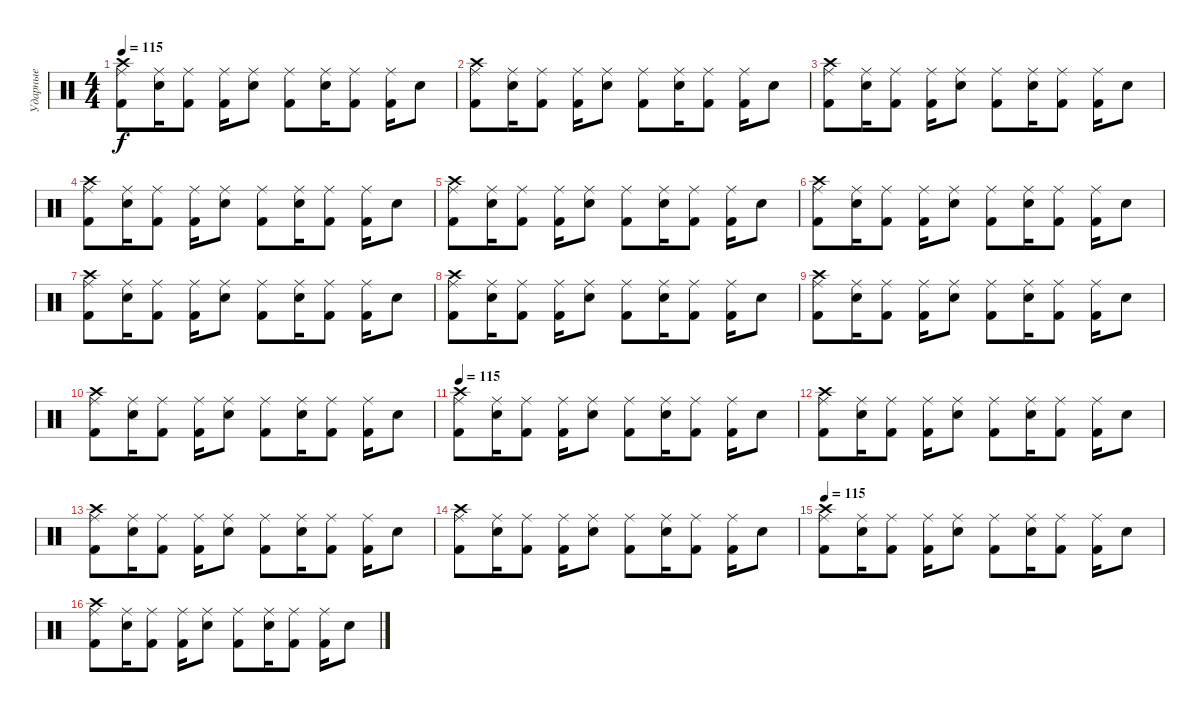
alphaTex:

\track ("Ударные" "Ударные") {instrument percussion}
\staff {score}
\articulation defaults
\ts (4 4)
\tempo 115
\clef neutral
\ks c
("Kick (hit) 2" "Crash high (hit)" "Ride (middle)").8{dy f} ("Electric Snare (hit)" "Ride (middle)").16 ("Kick (hit) 2" "Ride (middle)").8 ("Kick (hit) 2" "Ride (middle)").16 ("Electric Snare (hit)" "Ride (middle)").8 ("Kick (hit) 2" "Ride (middle)").8 ("Electric Snare (hit)" "Ride (middle)").16 ("Kick (hit) 2" "Ride (middle)").8 ("Kick (hit) 2" "Ride (middle)").16 "Electric Snare (hit)".8 |
("Kick (hit) 2" "Crash high (hit)" "Ride (middle)").8 ("Electric Snare (hit)" "Ride (middle)").16 ("Kick (hit) 2" "Ride (middle)").8 ("Kick (hit) 2" "Ride (middle)").16 ("Electric Snare (hit)" "Ride (middle)").8 ("Kick (hit) 2" "Ride (middle)").8 ("Electric Snare (hit)" "Ride (middle)").16 ("Kick (hit) 2" "Ride (middle)").8 ("Kick (hit) 2" "Ride (middle)").16 "Electric Snare (hit)".8 |
("Kick (hit) 2" "Crash high (hit)" "Ride (middle)").8 ("Electric Snare (hit)" "Ride (middle)").16 ("Kick (hit) 2" "Ride (middle)").8 ("Kick (hit) 2" "Ride (middle)").16 ("Electric Snare (hit)" "Ride (middle)").8 ("Kick (hit) 2" "Ride (middle)").8 ("Electric Snare (hit)" "Ride (middle)").16 ("Kick (hit) 2" "Ride (middle)").8 ("Kick (hit) 2" "Ride (middle)").16 "Electric Snare (hit)".8 |
("Kick (hit) 2" "Crash high (hit)" "Ride (middle)").8 ("Electric Snare (hit)" "Ride (middle)").16 ("Kick (hit) 2" "Ride (middle)").8 ("Kick (hit) 2" "Ride (middle)").16 ("Electric Snare (hit)" "Ride (middle)").8 ("Kick (hit) 2" "Ride (middle)").8 ("Electric Snare (hit)" "Ride (middle)").16 ("Kick (hit) 2" "Ride (middle)").8 ("Kick (hit) 2" "Ride (middle)").16 "Electric Snare (hit)".8 |
("Kick (hit) 2" "Crash high (hit)" "Ride (middle)").8 ("Electric Snare (hit)" "Ride (middle)").16 ("Kick (hit) 2" "Ride (middle)").8 ("Kick (hit) 2" "Ride (middle)").16 ("Electric Snare (hit)" "Ride (middle)").8 ("Kick (hit) 2" "Ride (middle)").8 ("Electric Snare (hit)" "Ride (middle)").16 ("Kick (hit) 2" "Ride (middle)").8 ("Kick (hit) 2" "Ride (middle)").16 "Electric Snare (hit)".8 |
("Kick (hit) 2" "Crash high (hit)" "Ride (middle)").8 ("Electric Snare (hit)" "Ride (middle)").16 ("Kick (hit) 2" "Ride (middle)").8 ("Kick (hit) 2" "Ride (middle)").16 ("Electric Snare (hit)" "Ride (middle)").8 ("Kick (hit) 2" "Ride (middle)").8 ("Electric Snare (hit)" "Ride (middle)").16 ("Kick (hit) 2" "Ride (middle)").8 ("Kick (hit) 2" "Ride (middle)").16 "Electric Snare (hit)".8 |
("Kick (hit) 2" "Crash high (hit)" "Ride (middle)").8 ("Electric Snare (hit)" "Ride (middle)").16 ("Kick (hit) 2" "Ride (middle)").8 ("Kick (hit) 2" "Ride (middle)").16 ("Electric Snare (hit)" "Ride (middle)").8 ("Kick (hit) 2" "Ride (middle)").8 ("Electric Snare (hit)" "Ride (middle)").16 ("Kick (hit) 2" "Ride (middle)").8 ("Kick (hit) 2" "Ride (middle)").16 "Electric Snare (hit)".8 |
("Kick (hit) 2" "Crash high (hit)" "Ride (middle)").8 ("Electric Snare (hit)" "Ride (middle)").16 ("Kick (hit) 2" "Ride (middle)").8 ("Kick (hit) 2" "Ride (middle)").16 ("Electric Snare (hit)" "Ride (middle)").8 ("Kick (hit) 2" "Ride (middle)").8 ("Electric Snare (hit)" "Ride (middle)").16 ("Kick (hit) 2" "Ride (middle)").8 ("Kick (hit) 2" "Ride (middle)").16 "Electric Snare (hit)".8 |
("Kick (hit) 2" "Crash high (hit)" "Ride (middle)").8 ("Electric Snare (hit)" "Ride (middle)").16 ("Kick (hit) 2" "Ride (middle)").8 ("Kick (hit) 2" "Ride (middle)").16 ("Electric Snare (hit)" "Ride (middle)").8 ("Kick (hit) 2" "Ride (middle)").8 ("Electric Snare (hit)" "Ride (middle)").16 ("Kick (hit) 2" "Ride (middle)").8 ("Kick (hit) 2" "Ride (middle)").16 "Electric Snare (hit)".8 |
("Kick (hit) 2" "Crash high (hit)" "Ride (middle)").8 ("Electric Snare (hit)" "Ride (middle)").16 ("Kick (hit) 2" "Ride (middle)").8 ("Kick (hit) 2" "Ride (middle)").16 ("Electric Snare (hit)" "Ride (middle)").8 ("Kick (hit) 2" "Ride (middle)").8 ("Electric Snare (hit)" "Ride (middle)").16 ("Kick (hit) 2" "Ride (middle)").8 ("Kick (hit) 2" "Ride (middle)").16 "Electric Snare (hit)".8 |
\tempo 115
("Kick (hit) 2" "Crash high (hit)" "Ride (middle)").8 ("Electric Snare (hit)" "Ride (middle)").16 ("Kick (hit) 2" "Ride (middle)").8 ("Kick (hit) 2" "Ride (middle)").16 ("Electric Snare (hit)" "Ride (middle)").8 ("Kick (hit) 2" "Ride (middle)").8 ("Electric Snare (hit)" "Ride (middle)").16 ("Kick (hit) 2" "Ride (middle)").8 ("Kick (hit) 2" "Ride (middle)").16 "Electric Snare (hit)".8 |
("Kick (hit) 2" "Crash high (hit)" "Ride (middle)").8 ("Electric Snare (hit)" "Ride (middle)").16 ("Kick (hit) 2" "Ride (middle)").8 ("Kick (hit) 2" "Ride (middle)").16 ("Electric Snare (hit)" "Ride (middle)").8 ("Kick (hit) 2" "Ride (middle)").8 ("Electric Snare (hit)" "Ride (middle)").16 ("Kick (hit) 2" "Ride (middle)").8 ("Kick (hit) 2" "Ride (middle)").16 "Electric Snare (hit)".8 |
("Kick (hit) 2" "Crash high (hit)" "Ride (middle)").8 ("Electric Snare (hit)" "Ride (middle)").16 ("Kick (hit) 2" "Ride (middle)").8 ("Kick (hit) 2" "Ride (middle)").16 ("Electric Snare (hit)" "Ride (middle)").8 ("Kick (hit) 2" "Ride (middle)").8 ("Electric Snare (hit)" "Ride (middle)").16 ("Kick (hit) 2" "Ride (middle)").8 ("Kick (hit) 2" "Ride (middle)").16 "Electric Snare (hit)".8 |
("Kick (hit) 2" "Crash high (hit)" "Ride (middle)").8 ("Electric Snare (hit)" "Ride (middle)").16 ("Kick (hit) 2" "Ride (middle)").8 ("Kick (hit) 2" "Ride (middle)").16 ("Electric Snare (hit)" "Ride (middle)").8 ("Kick (hit) 2" "Ride (middle)").8 ("Electric Snare (hit)" "Ride (middle)").16 ("Kick (hit) 2" "Ride (middle)").8 ("Kick (hit) 2" "Ride (middle)").16 "Electric Snare (hit)".8 |
\tempo 115
("Kick (hit) 2" "Crash high (hit)" "Ride (middle)").8 ("Electric Snare (hit)" "Ride (middle)").16 ("Kick (hit) 2" "Ride (middle)").8 ("Kick (hit) 2" "Ride (middle)").16 ("Electric Snare (hit)" "Ride (middle)").8 ("Kick (hit) 2" "Ride (middle)").8 ("Electric Snare (hit)" "Ride (middle)").16 ("Kick (hit) 2" "Ride (middle)").8 ("Kick (hit) 2" "Ride (middle)").16 "Electric Snare (hit)".8 |
("Kick (hit) 2" "Crash high (hit)" "Ride (middle)").8 ("Electric Snare (hit)" "Ride (middle)").16 ("Kick (hit) 2" "Ride (middle)").8 ("Kick (hit) 2" "Ride (middle)").16 ("Electric Snare (hit)" "Ride (middle)").8 ("Kick (hit) 2" "Ride (middle)").8 ("Electric Snare (hit)" "Ride (middle)").16 ("Kick (hit) 2" "Ride (middle)").8 ("Kick (hit) 2" "Ride (middle)").16 "Electric Snare (hit)".8
